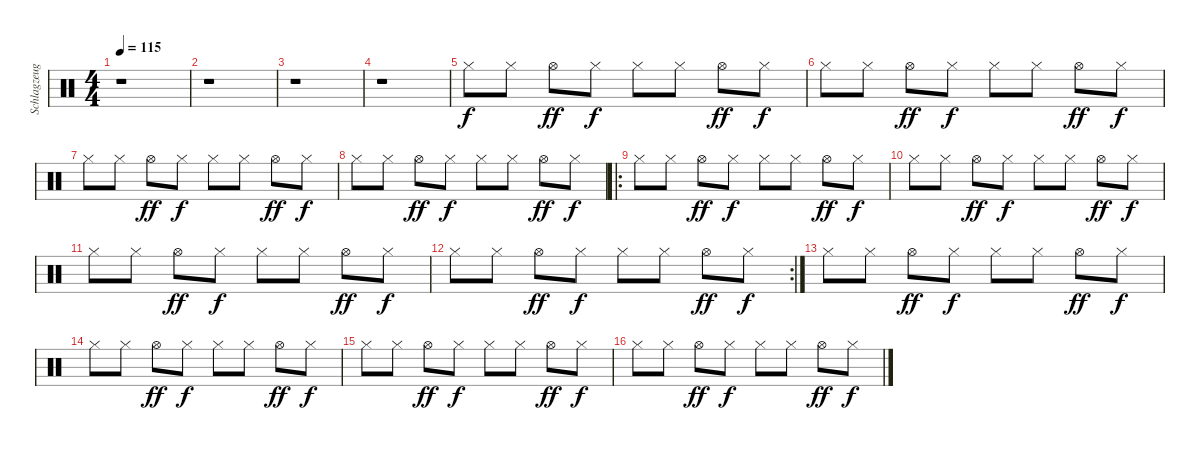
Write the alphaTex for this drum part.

\track ("Schlagzeug" "Schlagzeug") {instrument percussion}
\staff {score}
\articulation defaults
\ts (4 4)
\tempo 115
\clef neutral
\ks c
r.1{dy f} |
r.1 |
r.1 |
r.1 |
"Hi-Hat (closed)".8 "Hi-Hat (closed)".8 "Hi-Hat (open)".8{dy ff} "Hi-Hat (closed)".8{dy f} "Hi-Hat (closed)".8 "Hi-Hat (closed)".8 "Hi-Hat (open)".8{dy ff} "Hi-Hat (closed)".8{dy f} |
"Hi-Hat (closed)".8 "Hi-Hat (closed)".8 "Hi-Hat (open)".8{dy ff} "Hi-Hat (closed)".8{dy f} "Hi-Hat (closed)".8 "Hi-Hat (closed)".8 "Hi-Hat (open)".8{dy ff} "Hi-Hat (closed)".8{dy f} |
"Hi-Hat (closed)".8 "Hi-Hat (closed)".8 "Hi-Hat (open)".8{dy ff} "Hi-Hat (closed)".8{dy f} "Hi-Hat (closed)".8 "Hi-Hat (closed)".8 "Hi-Hat (open)".8{dy ff} "Hi-Hat (closed)".8{dy f} |
"Hi-Hat (closed)".8 "Hi-Hat (closed)".8 "Hi-Hat (open)".8{dy ff} "Hi-Hat (closed)".8{dy f} "Hi-Hat (closed)".8 "Hi-Hat (closed)".8 "Hi-Hat (open)".8{dy ff} "Hi-Hat (closed)".8{dy f} |
\ro "Hi-Hat (closed)".8 "Hi-Hat (closed)".8 "Hi-Hat (open)".8{dy ff} "Hi-Hat (closed)".8{dy f} "Hi-Hat (closed)".8 "Hi-Hat (closed)".8 "Hi-Hat (open)".8{dy ff} "Hi-Hat (closed)".8{dy f}
|
"Hi-Hat (closed)".8 "Hi-Hat (closed)".8 "Hi-Hat (open)".8{dy ff} "Hi-Hat (closed)".8{dy f} "Hi-Hat (closed)".8 "Hi-Hat (closed)".8 "Hi-Hat (open)".8{dy ff} "Hi-Hat (closed)".8{dy f} |
"Hi-Hat (closed)".8 "Hi-Hat (closed)".8 "Hi-Hat (open)".8{dy ff} "Hi-Hat (closed)".8{dy f} "Hi-Hat (closed)".8 "Hi-Hat (closed)".8 "Hi-Hat (open)".8{dy ff} "Hi-Hat (closed)".8{dy f} |
\rc 2 "Hi-Hat (closed)".8 "Hi-Hat (closed)".8 "Hi-Hat (open)".8{dy ff} "Hi-Hat (closed)".8{dy f} "Hi-Hat (closed)".8 "Hi-Hat (closed)".8 "Hi-Hat (open)".8{dy ff} "Hi-Hat (closed)".8{dy f}
|
"Hi-Hat (closed)".8 "Hi-Hat (closed)".8 "Hi-Hat (open)".8{dy ff} "Hi-Hat (closed)".8{dy f} "Hi-Hat (closed)".8 "Hi-Hat (closed)".8 "Hi-Hat (open)".8{dy ff} "Hi-Hat (closed)".8{dy f} |
"Hi-Hat (closed)".8 "Hi-Hat (closed)".8 "Hi-Hat (open)".8{dy ff} "Hi-Hat (closed)".8{dy f} "Hi-Hat (closed)".8 "Hi-Hat (closed)".8 "Hi-Hat (open)".8{dy ff} "Hi-Hat (closed)".8{dy f} |
"Hi-Hat (closed)".8 "Hi-Hat (closed)".8 "Hi-Hat (open)".8{dy ff} "Hi-Hat (closed)".8{dy f} "Hi-Hat (closed)".8 "Hi-Hat (closed)".8 "Hi-Hat (open)".8{dy ff} "Hi-Hat (closed)".8{dy f} |
"Hi-Hat (closed)".8 "Hi-Hat (closed)".8 "Hi-Hat (open)".8{dy ff} "Hi-Hat (closed)".8{dy f} "Hi-Hat (closed)".8 "Hi-Hat (closed)".8 "Hi-Hat (open)".8{dy ff} "Hi-Hat (closed)".8{dy f}
